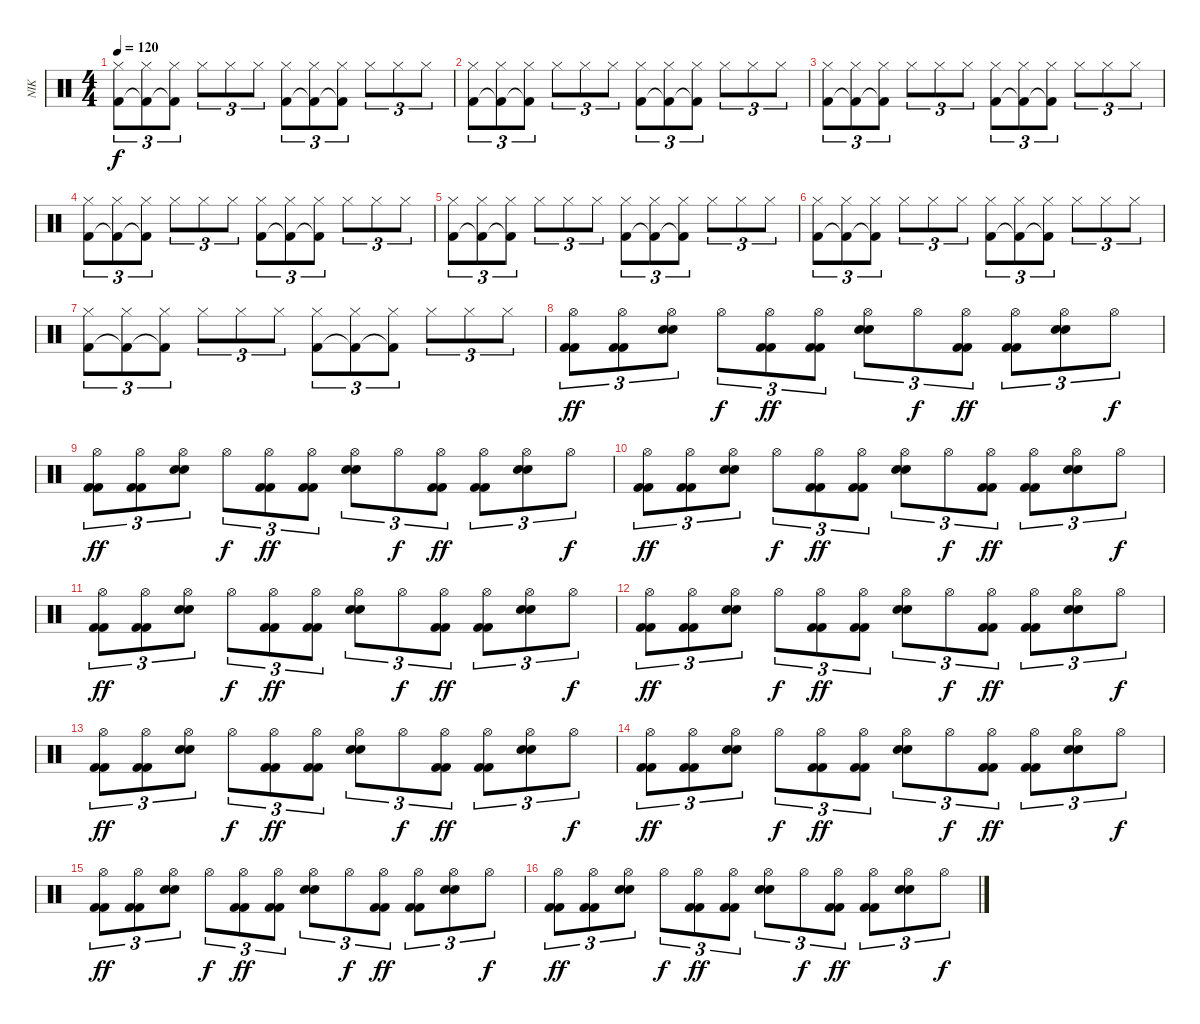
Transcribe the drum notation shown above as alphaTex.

\track ("NIK" "NIK") {instrument percussion}
\staff {score}
\articulation defaults
\ts (4 4)
\tempo 120
\clef neutral
\ks c
("Hi-Hat (closed)" "Kick (hit) 2").8{tu (3 2) dy f} ("Hi-Hat (closed)" "Kick (hit) 2"{t}).8{tu (3 2)} ("Hi-Hat (closed)" "Kick (hit) 2"{t}).8{tu (3 2)} "Hi-Hat (closed)".8{tu (3 2)} "Hi-Hat (closed)".8{tu (3 2)} "Hi-Hat (closed)".8{tu (3 2)} ("Hi-Hat (closed)" "Kick (hit) 2").8{tu (3 2)} ("Hi-Hat (closed)" "Kick (hit) 2"{t}).8{tu (3 2)} ("Hi-Hat (closed)" "Kick (hit) 2"{t}).8{tu (3 2)} "Hi-Hat (closed)".8{tu (3 2)} "Hi-Hat (closed)".8{tu (3 2)} "Hi-Hat (closed)".8{tu (3 2)} |
("Hi-Hat (closed)" "Kick (hit) 2").8{tu (3 2)} ("Hi-Hat (closed)" "Kick (hit) 2"{t}).8{tu (3 2)} ("Hi-Hat (closed)" "Kick (hit) 2"{t}).8{tu (3 2)} "Hi-Hat (closed)".8{tu (3 2)} "Hi-Hat (closed)".8{tu (3 2)} "Hi-Hat (closed)".8{tu (3 2)} ("Hi-Hat (closed)" "Kick (hit) 2").8{tu (3 2)} ("Hi-Hat (closed)" "Kick (hit) 2"{t}).8{tu (3 2)} ("Hi-Hat (closed)" "Kick (hit) 2"{t}).8{tu (3 2)} "Hi-Hat (closed)".8{tu (3 2)} "Hi-Hat (closed)".8{tu (3 2)} "Hi-Hat (closed)".8{tu (3 2)} |
("Hi-Hat (closed)" "Kick (hit) 2").8{tu (3 2)} ("Hi-Hat (closed)" "Kick (hit) 2"{t}).8{tu (3 2)} ("Hi-Hat (closed)" "Kick (hit) 2"{t}).8{tu (3 2)} "Hi-Hat (closed)".8{tu (3 2)} "Hi-Hat (closed)".8{tu (3 2)} "Hi-Hat (closed)".8{tu (3 2)} ("Hi-Hat (closed)" "Kick (hit) 2").8{tu (3 2)} ("Hi-Hat (closed)" "Kick (hit) 2"{t}).8{tu (3 2)} ("Hi-Hat (closed)" "Kick (hit) 2"{t}).8{tu (3 2)} "Hi-Hat (closed)".8{tu (3 2)} "Hi-Hat (closed)".8{tu (3 2)} "Hi-Hat (closed)".8{tu (3 2)} |
("Hi-Hat (closed)" "Kick (hit) 2").8{tu (3 2)} ("Hi-Hat (closed)" "Kick (hit) 2"{t}).8{tu (3 2)} ("Hi-Hat (closed)" "Kick (hit) 2"{t}).8{tu (3 2)} "Hi-Hat (closed)".8{tu (3 2)} "Hi-Hat (closed)".8{tu (3 2)} "Hi-Hat (closed)".8{tu (3 2)} ("Hi-Hat (closed)" "Kick (hit) 2").8{tu (3 2)} ("Hi-Hat (closed)" "Kick (hit) 2"{t}).8{tu (3 2)} ("Hi-Hat (closed)" "Kick (hit) 2"{t}).8{tu (3 2)} "Hi-Hat (closed)".8{tu (3 2)} "Hi-Hat (closed)".8{tu (3 2)} "Hi-Hat (closed)".8{tu (3 2)} |
("Hi-Hat (closed)" "Kick (hit) 2").8{tu (3 2)} ("Hi-Hat (closed)" "Kick (hit) 2"{t}).8{tu (3 2)} ("Hi-Hat (closed)" "Kick (hit) 2"{t}).8{tu (3 2)} "Hi-Hat (closed)".8{tu (3 2)} "Hi-Hat (closed)".8{tu (3 2)} "Hi-Hat (closed)".8{tu (3 2)} ("Hi-Hat (closed)" "Kick (hit) 2").8{tu (3 2)} ("Hi-Hat (closed)" "Kick (hit) 2"{t}).8{tu (3 2)} ("Hi-Hat (closed)" "Kick (hit) 2"{t}).8{tu (3 2)} "Hi-Hat (closed)".8{tu (3 2)} "Hi-Hat (closed)".8{tu (3 2)} "Hi-Hat (closed)".8{tu (3 2)} |
("Hi-Hat (closed)" "Kick (hit) 2").8{tu (3 2)} ("Hi-Hat (closed)" "Kick (hit) 2"{t}).8{tu (3 2)} ("Hi-Hat (closed)" "Kick (hit) 2"{t}).8{tu (3 2)} "Hi-Hat (closed)".8{tu (3 2)} "Hi-Hat (closed)".8{tu (3 2)} "Hi-Hat (closed)".8{tu (3 2)} ("Hi-Hat (closed)" "Kick (hit) 2").8{tu (3 2)} ("Hi-Hat (closed)" "Kick (hit) 2"{t}).8{tu (3 2)} ("Hi-Hat (closed)" "Kick (hit) 2"{t}).8{tu (3 2)} "Hi-Hat (closed)".8{tu (3 2)} "Hi-Hat (closed)".8{tu (3 2)} "Hi-Hat (closed)".8{tu (3 2)} |
("Hi-Hat (closed)" "Kick (hit) 2").8{tu (3 2)} ("Hi-Hat (closed)" "Kick (hit) 2"{t}).8{tu (3 2)} ("Hi-Hat (closed)" "Kick (hit) 2"{t}).8{tu (3 2)} "Hi-Hat (closed)".8{tu (3 2)} "Hi-Hat (closed)".8{tu (3 2)} "Hi-Hat (closed)".8{tu (3 2)} ("Hi-Hat (closed)" "Kick (hit) 2").8{tu (3 2)} ("Hi-Hat (closed)" "Kick (hit) 2"{t}).8{tu (3 2)} ("Hi-Hat (closed)" "Kick (hit) 2"{t}).8{tu (3 2)} "Hi-Hat (closed)".8{tu (3 2)} "Hi-Hat (closed)".8{tu (3 2)} "Hi-Hat (closed)".8{tu (3 2)} |
("Kick (hit) 2" "Kick (hit) 2" "Hi-Hat (open)").8{tu (3 2) dy ff} ("Kick (hit) 2" "Kick (hit) 2" "Hi-Hat (open)").8{tu (3 2)} ("Electric Snare (hit)" "Electric Snare (hit)" "Hi-Hat (open)").8{tu (3 2)} "Hi-Hat (open)".8{tu (3 2) dy f} ("Kick (hit) 2" "Kick (hit) 2" "Hi-Hat (open)").8{tu (3 2) dy ff} ("Kick (hit) 2" "Kick (hit) 2" "Hi-Hat (open)").8{tu (3 2)} ("Electric Snare (hit)" "Electric Snare (hit)" "Hi-Hat (open)").8{tu (3 2)} "Hi-Hat (open)".8{tu (3 2) dy f} ("Kick (hit) 2" "Kick (hit) 2" "Hi-Hat (open)").8{tu (3 2) dy ff} ("Kick (hit) 2" "Kick (hit) 2" "Hi-Hat (open)").8{tu (3 2)} ("Electric Snare (hit)" "Electric Snare (hit)" "Hi-Hat (open)").8{tu (3 2)} "Hi-Hat (open)".8{tu (3 2) dy f} |
("Kick (hit) 2" "Kick (hit) 2" "Hi-Hat (open)").8{tu (3 2) dy ff} ("Kick (hit) 2" "Kick (hit) 2" "Hi-Hat (open)").8{tu (3 2)} ("Electric Snare (hit)" "Electric Snare (hit)" "Hi-Hat (open)").8{tu (3 2)} "Hi-Hat (open)".8{tu (3 2) dy f} ("Kick (hit) 2" "Kick (hit) 2" "Hi-Hat (open)").8{tu (3 2) dy ff} ("Kick (hit) 2" "Kick (hit) 2" "Hi-Hat (open)").8{tu (3 2)} ("Electric Snare (hit)" "Electric Snare (hit)" "Hi-Hat (open)").8{tu (3 2)} "Hi-Hat (open)".8{tu (3 2) dy f} ("Kick (hit) 2" "Kick (hit) 2" "Hi-Hat (open)").8{tu (3 2) dy ff} ("Kick (hit) 2" "Kick (hit) 2" "Hi-Hat (open)").8{tu (3 2)} ("Electric Snare (hit)" "Electric Snare (hit)" "Hi-Hat (open)").8{tu (3 2)} "Hi-Hat (open)".8{tu (3 2) dy f} |
("Kick (hit) 2" "Kick (hit) 2" "Hi-Hat (open)").8{tu (3 2) dy ff} ("Kick (hit) 2" "Kick (hit) 2" "Hi-Hat (open)").8{tu (3 2)} ("Electric Snare (hit)" "Electric Snare (hit)" "Hi-Hat (open)").8{tu (3 2)} "Hi-Hat (open)".8{tu (3 2) dy f} ("Kick (hit) 2" "Kick (hit) 2" "Hi-Hat (open)").8{tu (3 2) dy ff} ("Kick (hit) 2" "Kick (hit) 2" "Hi-Hat (open)").8{tu (3 2)} ("Electric Snare (hit)" "Electric Snare (hit)" "Hi-Hat (open)").8{tu (3 2)} "Hi-Hat (open)".8{tu (3 2) dy f} ("Kick (hit) 2" "Kick (hit) 2" "Hi-Hat (open)").8{tu (3 2) dy ff} ("Kick (hit) 2" "Kick (hit) 2" "Hi-Hat (open)").8{tu (3 2)} ("Electric Snare (hit)" "Electric Snare (hit)" "Hi-Hat (open)").8{tu (3 2)} "Hi-Hat (open)".8{tu (3 2) dy f} |
("Kick (hit) 2" "Kick (hit) 2" "Hi-Hat (open)").8{tu (3 2) dy ff} ("Kick (hit) 2" "Kick (hit) 2" "Hi-Hat (open)").8{tu (3 2)} ("Electric Snare (hit)" "Electric Snare (hit)" "Hi-Hat (open)").8{tu (3 2)} "Hi-Hat (open)".8{tu (3 2) dy f} ("Kick (hit) 2" "Kick (hit) 2" "Hi-Hat (open)").8{tu (3 2) dy ff} ("Kick (hit) 2" "Kick (hit) 2" "Hi-Hat (open)").8{tu (3 2)} ("Electric Snare (hit)" "Electric Snare (hit)" "Hi-Hat (open)").8{tu (3 2)} "Hi-Hat (open)".8{tu (3 2) dy f} ("Kick (hit) 2" "Kick (hit) 2" "Hi-Hat (open)").8{tu (3 2) dy ff} ("Kick (hit) 2" "Kick (hit) 2" "Hi-Hat (open)").8{tu (3 2)} ("Electric Snare (hit)" "Electric Snare (hit)" "Hi-Hat (open)").8{tu (3 2)} "Hi-Hat (open)".8{tu (3 2) dy f} |
("Kick (hit) 2" "Kick (hit) 2" "Hi-Hat (open)").8{tu (3 2) dy ff} ("Kick (hit) 2" "Kick (hit) 2" "Hi-Hat (open)").8{tu (3 2)} ("Electric Snare (hit)" "Electric Snare (hit)" "Hi-Hat (open)").8{tu (3 2)} "Hi-Hat (open)".8{tu (3 2) dy f} ("Kick (hit) 2" "Kick (hit) 2" "Hi-Hat (open)").8{tu (3 2) dy ff} ("Kick (hit) 2" "Kick (hit) 2" "Hi-Hat (open)").8{tu (3 2)} ("Electric Snare (hit)" "Electric Snare (hit)" "Hi-Hat (open)").8{tu (3 2)} "Hi-Hat (open)".8{tu (3 2) dy f} ("Kick (hit) 2" "Kick (hit) 2" "Hi-Hat (open)").8{tu (3 2) dy ff} ("Kick (hit) 2" "Kick (hit) 2" "Hi-Hat (open)").8{tu (3 2)} ("Electric Snare (hit)" "Electric Snare (hit)" "Hi-Hat (open)").8{tu (3 2)} "Hi-Hat (open)".8{tu (3 2) dy f} |
("Kick (hit) 2" "Kick (hit) 2" "Hi-Hat (open)").8{tu (3 2) dy ff} ("Kick (hit) 2" "Kick (hit) 2" "Hi-Hat (open)").8{tu (3 2)} ("Electric Snare (hit)" "Electric Snare (hit)" "Hi-Hat (open)").8{tu (3 2)} "Hi-Hat (open)".8{tu (3 2) dy f} ("Kick (hit) 2" "Kick (hit) 2" "Hi-Hat (open)").8{tu (3 2) dy ff} ("Kick (hit) 2" "Kick (hit) 2" "Hi-Hat (open)").8{tu (3 2)} ("Electric Snare (hit)" "Electric Snare (hit)" "Hi-Hat (open)").8{tu (3 2)} "Hi-Hat (open)".8{tu (3 2) dy f} ("Kick (hit) 2" "Kick (hit) 2" "Hi-Hat (open)").8{tu (3 2) dy ff} ("Kick (hit) 2" "Kick (hit) 2" "Hi-Hat (open)").8{tu (3 2)} ("Electric Snare (hit)" "Electric Snare (hit)" "Hi-Hat (open)").8{tu (3 2)} "Hi-Hat (open)".8{tu (3 2) dy f} |
("Kick (hit) 2" "Kick (hit) 2" "Hi-Hat (open)").8{tu (3 2) dy ff} ("Kick (hit) 2" "Kick (hit) 2" "Hi-Hat (open)").8{tu (3 2)} ("Electric Snare (hit)" "Electric Snare (hit)" "Hi-Hat (open)").8{tu (3 2)} "Hi-Hat (open)".8{tu (3 2) dy f} ("Kick (hit) 2" "Kick (hit) 2" "Hi-Hat (open)").8{tu (3 2) dy ff} ("Kick (hit) 2" "Kick (hit) 2" "Hi-Hat (open)").8{tu (3 2)} ("Electric Snare (hit)" "Electric Snare (hit)" "Hi-Hat (open)").8{tu (3 2)} "Hi-Hat (open)".8{tu (3 2) dy f} ("Kick (hit) 2" "Kick (hit) 2" "Hi-Hat (open)").8{tu (3 2) dy ff} ("Kick (hit) 2" "Kick (hit) 2" "Hi-Hat (open)").8{tu (3 2)} ("Electric Snare (hit)" "Electric Snare (hit)" "Hi-Hat (open)").8{tu (3 2)} "Hi-Hat (open)".8{tu (3 2) dy f} |
("Kick (hit) 2" "Kick (hit) 2" "Hi-Hat (open)").8{tu (3 2) dy ff} ("Kick (hit) 2" "Kick (hit) 2" "Hi-Hat (open)").8{tu (3 2)} ("Electric Snare (hit)" "Electric Snare (hit)" "Hi-Hat (open)").8{tu (3 2)} "Hi-Hat (open)".8{tu (3 2) dy f} ("Kick (hit) 2" "Kick (hit) 2" "Hi-Hat (open)").8{tu (3 2) dy ff} ("Kick (hit) 2" "Kick (hit) 2" "Hi-Hat (open)").8{tu (3 2)} ("Electric Snare (hit)" "Electric Snare (hit)" "Hi-Hat (open)").8{tu (3 2)} "Hi-Hat (open)".8{tu (3 2) dy f} ("Kick (hit) 2" "Kick (hit) 2" "Hi-Hat (open)").8{tu (3 2) dy ff} ("Kick (hit) 2" "Kick (hit) 2" "Hi-Hat (open)").8{tu (3 2)} ("Electric Snare (hit)" "Electric Snare (hit)" "Hi-Hat (open)").8{tu (3 2)} "Hi-Hat (open)".8{tu (3 2) dy f} |
("Kick (hit) 2" "Kick (hit) 2" "Hi-Hat (open)").8{tu (3 2) dy ff} ("Kick (hit) 2" "Kick (hit) 2" "Hi-Hat (open)").8{tu (3 2)} ("Electric Snare (hit)" "Electric Snare (hit)" "Hi-Hat (open)").8{tu (3 2)} "Hi-Hat (open)".8{tu (3 2) dy f} ("Kick (hit) 2" "Kick (hit) 2" "Hi-Hat (open)").8{tu (3 2) dy ff} ("Kick (hit) 2" "Kick (hit) 2" "Hi-Hat (open)").8{tu (3 2)} ("Electric Snare (hit)" "Electric Snare (hit)" "Hi-Hat (open)").8{tu (3 2)} "Hi-Hat (open)".8{tu (3 2) dy f} ("Kick (hit) 2" "Kick (hit) 2" "Hi-Hat (open)").8{tu (3 2) dy ff} ("Kick (hit) 2" "Kick (hit) 2" "Hi-Hat (open)").8{tu (3 2)} ("Electric Snare (hit)" "Electric Snare (hit)" "Hi-Hat (open)").8{tu (3 2)} "Hi-Hat (open)".8{tu (3 2) dy f}
